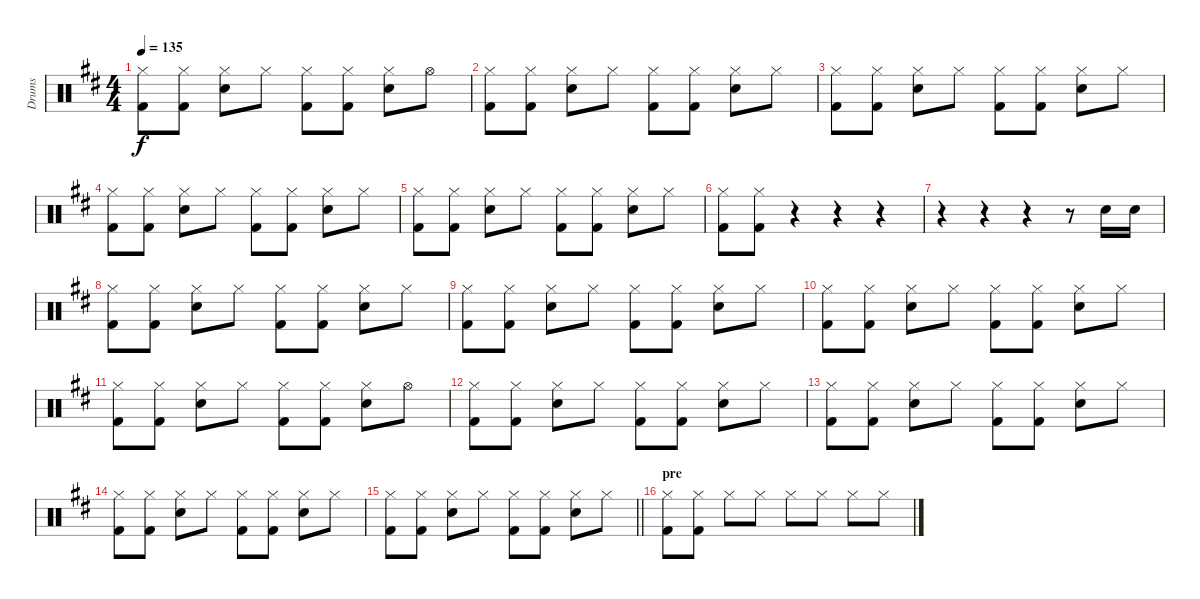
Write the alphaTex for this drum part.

\track ("Drums" "Drums") {instrument percussion}
\staff {score}
\articulation defaults
\ts (4 4)
\tempo 135
\clef neutral
\ks d
("Hi-Hat (closed)" "Kick (hit) 2").8{dy f} ("Hi-Hat (closed)" "Kick (hit) 2").8 ("Hi-Hat (closed)" "Snare (hit) 2").8 "Hi-Hat (closed)".8 ("Hi-Hat (closed)" "Kick (hit) 2").8 ("Hi-Hat (closed)" "Kick (hit) 2").8 ("Hi-Hat (closed)" "Snare (hit) 2").8 "Hi-Hat (open)".8 |
("Hi-Hat (closed)" "Kick (hit) 2").8 ("Hi-Hat (closed)" "Kick (hit) 2").8 ("Hi-Hat (closed)" "Snare (hit) 2").8 "Hi-Hat (closed)".8 ("Hi-Hat (closed)" "Kick (hit) 2").8 ("Hi-Hat (closed)" "Kick (hit) 2").8 ("Hi-Hat (closed)" "Snare (hit) 2").8 "Hi-Hat (closed)".8 |
("Hi-Hat (closed)" "Kick (hit) 2").8 ("Hi-Hat (closed)" "Kick (hit) 2").8 ("Hi-Hat (closed)" "Snare (hit) 2").8 "Hi-Hat (closed)".8 ("Hi-Hat (closed)" "Kick (hit) 2").8 ("Hi-Hat (closed)" "Kick (hit) 2").8 ("Hi-Hat (closed)" "Snare (hit) 2").8 "Hi-Hat (closed)".8 |
("Hi-Hat (closed)" "Kick (hit) 2").8 ("Hi-Hat (closed)" "Kick (hit) 2").8 ("Hi-Hat (closed)" "Snare (hit) 2").8 "Hi-Hat (closed)".8 ("Hi-Hat (closed)" "Kick (hit) 2").8 ("Hi-Hat (closed)" "Kick (hit) 2").8 ("Hi-Hat (closed)" "Snare (hit) 2").8 "Hi-Hat (closed)".8 |
("Hi-Hat (closed)" "Kick (hit) 2").8 ("Hi-Hat (closed)" "Kick (hit) 2").8 ("Hi-Hat (closed)" "Snare (hit) 2").8 "Hi-Hat (closed)".8 ("Hi-Hat (closed)" "Kick (hit) 2").8 ("Hi-Hat (closed)" "Kick (hit) 2").8 ("Hi-Hat (closed)" "Snare (hit) 2").8 "Hi-Hat (closed)".8 |
("Hi-Hat (closed)" "Kick (hit) 2").8 ("Hi-Hat (closed)" "Kick (hit) 2").8 r.4 r.4 r.4 |
r.4 r.4 r.4 r.8 "Snare (hit) 2".16 "Snare (hit) 2".16 |
("Hi-Hat (closed)" "Kick (hit) 2").8 ("Hi-Hat (closed)" "Kick (hit) 2").8 ("Hi-Hat (closed)" "Snare (hit) 2").8 "Hi-Hat (closed)".8 ("Hi-Hat (closed)" "Kick (hit) 2").8 ("Hi-Hat (closed)" "Kick (hit) 2").8 ("Hi-Hat (closed)" "Snare (hit) 2").8 "Hi-Hat (closed)".8 |
("Hi-Hat (closed)" "Kick (hit) 2").8 ("Hi-Hat (closed)" "Kick (hit) 2").8 ("Hi-Hat (closed)" "Snare (hit) 2").8 "Hi-Hat (closed)".8 ("Hi-Hat (closed)" "Kick (hit) 2").8 ("Hi-Hat (closed)" "Kick (hit) 2").8 ("Hi-Hat (closed)" "Snare (hit) 2").8 "Hi-Hat (closed)".8 |
("Hi-Hat (closed)" "Kick (hit) 2").8 ("Hi-Hat (closed)" "Kick (hit) 2").8 ("Hi-Hat (closed)" "Snare (hit) 2").8 "Hi-Hat (closed)".8 ("Hi-Hat (closed)" "Kick (hit) 2").8 ("Hi-Hat (closed)" "Kick (hit) 2").8 ("Hi-Hat (closed)" "Snare (hit) 2").8 "Hi-Hat (closed)".8 |
("Hi-Hat (closed)" "Kick (hit) 2").8 ("Hi-Hat (closed)" "Kick (hit) 2").8 ("Hi-Hat (closed)" "Snare (hit) 2").8 "Hi-Hat (closed)".8 ("Hi-Hat (closed)" "Kick (hit) 2").8 ("Hi-Hat (closed)" "Kick (hit) 2").8 ("Hi-Hat (closed)" "Snare (hit) 2").8 "Hi-Hat (open)".8 |
("Hi-Hat (closed)" "Kick (hit) 2").8 ("Hi-Hat (closed)" "Kick (hit) 2").8 ("Hi-Hat (closed)" "Snare (hit) 2").8 "Hi-Hat (closed)".8 ("Hi-Hat (closed)" "Kick (hit) 2").8 ("Hi-Hat (closed)" "Kick (hit) 2").8 ("Hi-Hat (closed)" "Snare (hit) 2").8 "Hi-Hat (closed)".8 |
("Hi-Hat (closed)" "Kick (hit) 2").8 ("Hi-Hat (closed)" "Kick (hit) 2").8 ("Hi-Hat (closed)" "Snare (hit) 2").8 "Hi-Hat (closed)".8 ("Hi-Hat (closed)" "Kick (hit) 2").8 ("Hi-Hat (closed)" "Kick (hit) 2").8 ("Hi-Hat (closed)" "Snare (hit) 2").8 "Hi-Hat (closed)".8 |
("Hi-Hat (closed)" "Kick (hit) 2").8 ("Hi-Hat (closed)" "Kick (hit) 2").8 ("Hi-Hat (closed)" "Snare (hit) 2").8 "Hi-Hat (closed)".8 ("Hi-Hat (closed)" "Kick (hit) 2").8 ("Hi-Hat (closed)" "Kick (hit) 2").8 ("Hi-Hat (closed)" "Snare (hit) 2").8 "Hi-Hat (closed)".8 |
\barLineRight lightlight
("Hi-Hat (closed)" "Kick (hit) 2").8 ("Hi-Hat (closed)" "Kick (hit) 2").8 ("Hi-Hat (closed)" "Snare (hit) 2").8 "Hi-Hat (closed)".8 ("Hi-Hat (closed)" "Kick (hit) 2").8 ("Hi-Hat (closed)" "Kick (hit) 2").8 ("Hi-Hat (closed)" "Snare (hit) 2").8 "Hi-Hat (closed)".8 |
\section ("" "pre")
("Hi-Hat (closed)" "Kick (hit) 2").8 ("Hi-Hat (closed)" "Kick (hit) 2").8 "Hi-Hat (closed)".8 "Hi-Hat (closed)".8 "Hi-Hat (closed)".8 "Hi-Hat (closed)".8 "Hi-Hat (closed)".8 "Hi-Hat (closed)".8
